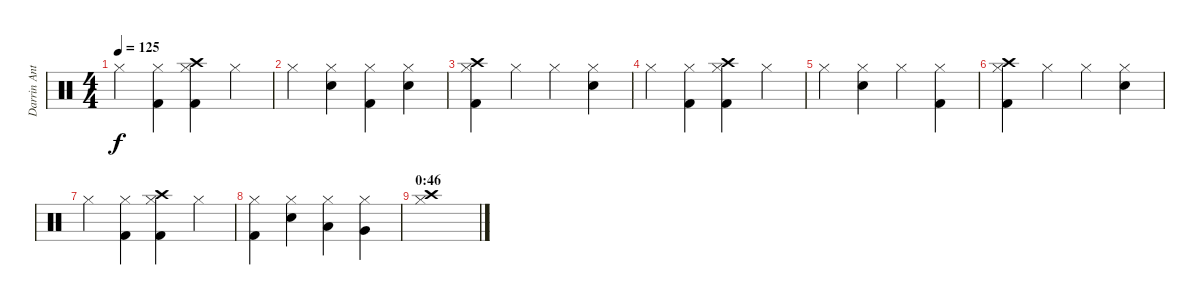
\track ("Darrin Anthony (Drums)" "Darrin Ant") {instrument percussion}
\staff {score}
\articulation defaults
\ts (4 4)
\tempo 125
\clef neutral
\ks c "Hi-Hat (closed)".4{dy f}
("Kick (hit) 2" "Hi-Hat (closed)").4 ("Kick (hit) 2" "Hi-Hat (closed)" "Crash high (hit)").4 "Hi-Hat (closed)".4 |
"Hi-Hat (closed)".4 ("Electric Snare (hit)" "Hi-Hat (closed)").4 ("Kick (hit) 2" "Hi-Hat (closed)").4 ("Electric Snare (hit)" "Hi-Hat (closed)").4 |
("Kick (hit) 2" "Hi-Hat (closed)" "Crash high (hit)").4 "Hi-Hat (closed)".4 "Hi-Hat (closed)".4 ("Electric Snare (hit)" "Hi-Hat (closed)").4 |
"Hi-Hat (closed)".4 ("Kick (hit) 2" "Hi-Hat (closed)").4 ("Kick (hit) 2" "Hi-Hat (closed)" "Crash high (hit)").4 "Hi-Hat (closed)".4 |
"Hi-Hat (closed)".4 ("Electric Snare (hit)" "Hi-Hat (closed)").4 "Hi-Hat (closed)".4 ("Kick (hit) 2" "Hi-Hat (closed)").4 |
("Kick (hit) 2" "Hi-Hat (closed)" "Crash high (hit)").4 "Hi-Hat (closed)".4 "Hi-Hat (closed)".4 ("Electric Snare (hit)" "Hi-Hat (closed)").4 |
"Hi-Hat (closed)".4 ("Kick (hit) 2" "Hi-Hat (closed)").4 ("Kick (hit) 2" "Hi-Hat (closed)" "Crash high (hit)").4 "Hi-Hat (closed)".4 |
("Kick (hit) 2" "Hi-Hat (closed)").4 ("Electric Snare (hit)" "Hi-Hat (closed)").4 ("Low Tom (hit)" "Hi-Hat (closed)").4 ("Very Low Tom (hit)" "Hi-Hat (closed)").4 |
\section ("" "0:46")
("Hi-Hat (closed)" "Crash high (hit)").1
